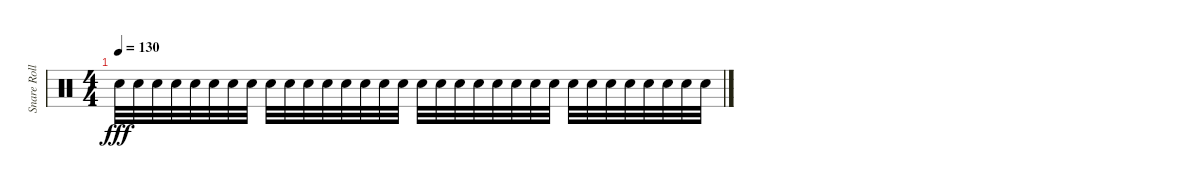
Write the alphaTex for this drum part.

\track ("Snare Roll" "Snare Roll") {instrument percussion}
\staff {score}
\articulation defaults
\ts (4 4)
\tempo 130
\clef neutral
\ks c "Snare (hit) 2".32{dy fff} "Snare (hit) 2".32 "Snare (hit) 2".32 "Snare (hit) 2".32 "Snare (hit) 2".32 "Snare (hit) 2".32 "Snare (hit) 2".32 "Snare (hit) 2".32 "Snare (hit) 2".32 "Snare (hit) 2".32 "Snare (hit) 2".32 "Snare (hit) 2".32 "Snare (hit) 2".32 "Snare (hit) 2".32 "Snare (hit) 2".32 "Snare (hit) 2".32 "Snare (hit) 2".32 "Snare (hit) 2".32 "Snare (hit) 2".32 "Snare (hit) 2".32 "Snare (hit) 2".32 "Snare (hit) 2".32 "Snare (hit) 2".32 "Snare (hit) 2".32 "Snare (hit) 2".32 "Snare (hit) 2".32 "Snare (hit) 2".32 "Snare (hit) 2".32 "Snare (hit) 2".32 "Snare (hit) 2".32 "Snare (hit) 2".32 "Snare (hit) 2".32
